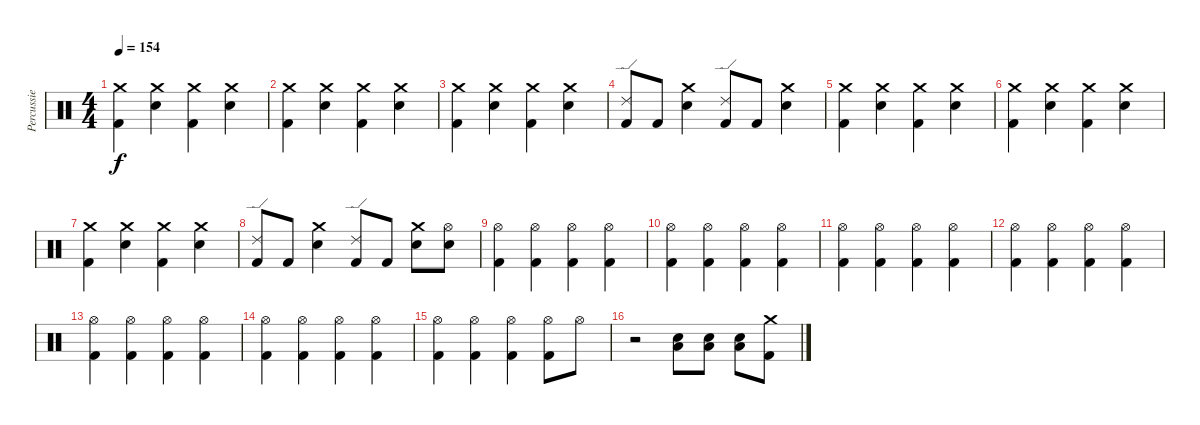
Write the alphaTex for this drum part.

\track ("Percussie" "Percussie") {instrument percussion}
\staff {score}
\articulation defaults
\ts (4 4)
\tempo 154
\clef neutral
\ks c
("Crash medium (hit)" "Kick (hit) 2").4{dy f} ("Crash medium (hit)" "Snare (hit) 2").4 ("Crash medium (hit)" "Kick (hit) 2").4 ("Crash medium (hit)" "Snare (hit) 2").4 |
("Crash medium (hit)" "Kick (hit) 2").4 ("Crash medium (hit)" "Snare (hit) 2").4 ("Crash medium (hit)" "Kick (hit) 2").4 ("Crash medium (hit)" "Snare (hit) 2").4 |
("Crash medium (hit)" "Kick (hit) 2").4 ("Crash medium (hit)" "Snare (hit) 2").4 ("Crash medium (hit)" "Kick (hit) 2").4 ("Crash medium (hit)" "Snare (hit) 2").4 |
("Ride (edge) 2" "Kick (hit) 2").8 "Kick (hit) 2".8 ("Crash medium (hit)" "Snare (hit) 2").4 ("Ride (edge) 2" "Kick (hit) 2").8 "Kick (hit) 2".8 ("Crash medium (hit)" "Snare (hit) 2").4 |
("Crash medium (hit)" "Kick (hit) 2").4 ("Crash medium (hit)" "Snare (hit) 2").4 ("Crash medium (hit)" "Kick (hit) 2").4 ("Crash medium (hit)" "Snare (hit) 2").4 |
("Crash medium (hit)" "Kick (hit) 2").4 ("Crash medium (hit)" "Snare (hit) 2").4 ("Crash medium (hit)" "Kick (hit) 2").4 ("Crash medium (hit)" "Snare (hit) 2").4 |
("Crash medium (hit)" "Kick (hit) 2").4 ("Crash medium (hit)" "Snare (hit) 2").4 ("Crash medium (hit)" "Kick (hit) 2").4 ("Crash medium (hit)" "Snare (hit) 2").4 |
("Ride (edge) 2" "Kick (hit) 2").8 "Kick (hit) 2".8 ("Crash medium (hit)" "Snare (hit) 2").4 ("Ride (edge) 2" "Kick (hit) 2").8 "Kick (hit) 2".8 ("Crash medium (hit)" "Snare (hit) 2").8 ("Hi-Hat (open)" "Snare (hit) 2").8 |
("Hi-Hat (open)" "Kick (hit) 2").4 ("Hi-Hat (open)" "Kick (hit) 2").4 ("Hi-Hat (open)" "Kick (hit) 2").4 ("Hi-Hat (open)" "Kick (hit) 2").4 |
("Hi-Hat (open)" "Kick (hit) 2").4 ("Hi-Hat (open)" "Kick (hit) 2").4 ("Hi-Hat (open)" "Kick (hit) 2").4 ("Hi-Hat (open)" "Kick (hit) 2").4 |
("Hi-Hat (open)" "Kick (hit) 2").4 ("Hi-Hat (open)" "Kick (hit) 2").4 ("Hi-Hat (open)" "Kick (hit) 2").4 ("Hi-Hat (open)" "Kick (hit) 2").4 |
("Hi-Hat (open)" "Kick (hit) 2").4 ("Hi-Hat (open)" "Kick (hit) 2").4 ("Hi-Hat (open)" "Kick (hit) 2").4 ("Hi-Hat (open)" "Kick (hit) 2").4 |
("Hi-Hat (open)" "Kick (hit) 2").4 ("Hi-Hat (open)" "Kick (hit) 2").4 ("Hi-Hat (open)" "Kick (hit) 2").4 ("Hi-Hat (open)" "Kick (hit) 2").4 |
("Hi-Hat (open)" "Kick (hit) 2").4 ("Hi-Hat (open)" "Kick (hit) 2").4 ("Hi-Hat (open)" "Kick (hit) 2").4 ("Hi-Hat (open)" "Kick (hit) 2").4 |
("Hi-Hat (open)" "Kick (hit) 2").4 ("Hi-Hat (open)" "Kick (hit) 2").4 ("Hi-Hat (open)" "Kick (hit) 2").4 ("Hi-Hat (open)" "Kick (hit) 2").8 "Hi-Hat (open)".8 |
r.2 ("Snare (hit) 2" "Low Tom (hit)").8 ("Snare (hit) 2" "Low Tom (hit)").8 ("Snare (hit) 2" "Low Tom (hit)").8 ("Crash medium (hit)" "Kick (hit) 2").8
